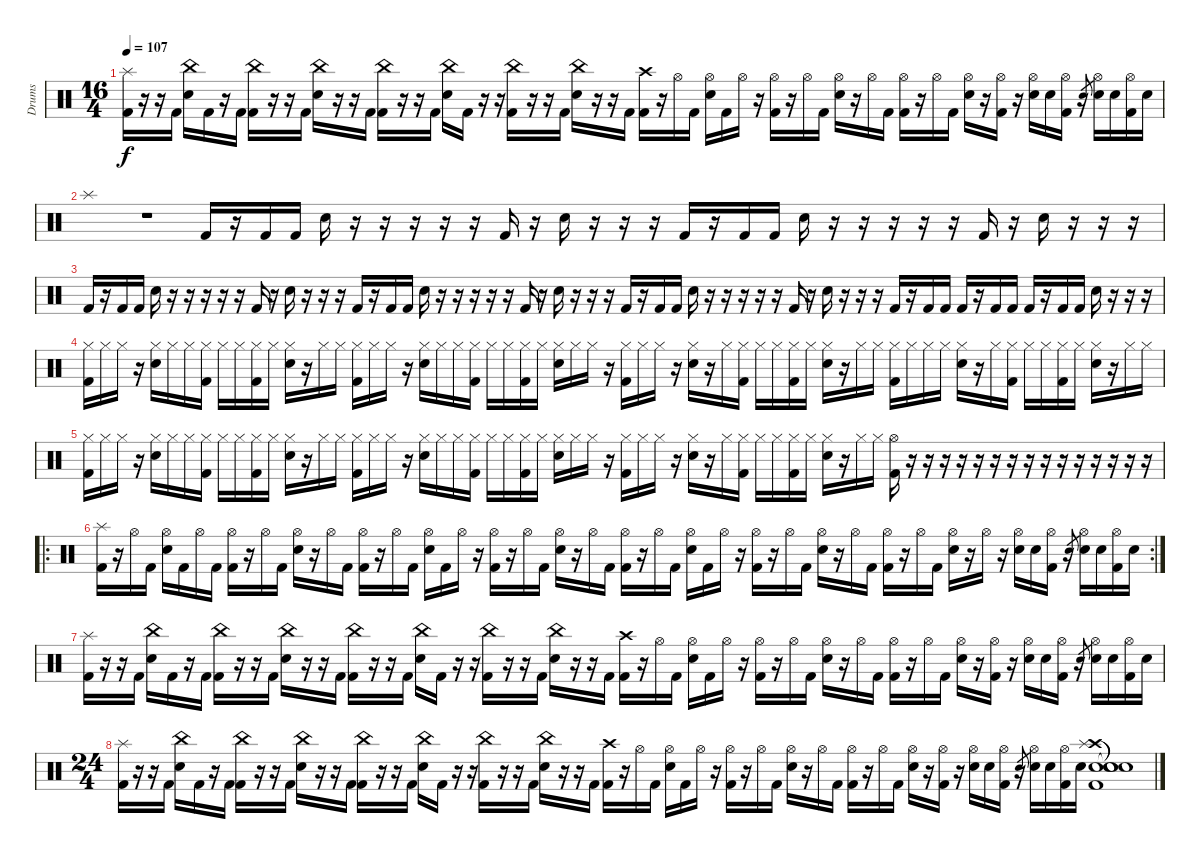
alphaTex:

\track ("Drums" "Drums") {instrument percussion}
\staff {score}
\articulation defaults
\ts (16 4)
\tempo 107
\clef neutral
\ks c
("Splash (hit)" "Kick (hit) 2").16{dy f} r.16 r.16 "Kick (hit) 2".16 ("China (hit)" "Electric Snare (hit)").16 "Kick (hit) 2".16 r.16 "Kick (hit) 2".16 ("China (hit)" "Kick (hit) 2").16 r.16 r.16 "Kick (hit) 2".16 ("China (hit)" "Electric Snare (hit)").16 r.16 r.16 "Kick (hit) 2".16 ("China (hit)" "Kick (hit) 2").16 r.16 r.16 "Kick (hit) 2".16 ("China (hit)" "Electric Snare (hit)").16 "Kick (hit) 2".16 r.16 r.16 ("China (hit)" "Kick (hit) 2").16 r.16 r.16 "Kick (hit) 2".16 ("China (hit)" "Electric Snare (hit)").16 r.16 r.16 "Kick (hit) 2".16 ("Crash high (hit)" "Kick (hit) 2").16 r.16 "Hi-Hat (open)".16 "Kick (hit) 2".16 ("Hi-Hat (open)" "Electric Snare (hit)").16 "Kick (hit) 2".16 "Hi-Hat (open)".16 r.16 ("Hi-Hat (open)" "Kick (hit) 2").16 r.16 "Hi-Hat (open)".16 "Kick (hit) 2".16 ("Hi-Hat (open)" "Electric Snare (hit)").16 r.16 "Hi-Hat (open)".16 "Kick (hit) 2".16 ("Hi-Hat (open)" "Kick (hit) 2").16 r.16 "Hi-Hat (open)".16 "Kick (hit) 2".16 ("Hi-Hat (open)" "Electric Snare (hit)").16 r.16 ("Hi-Hat (open)" "Kick (hit) 2").16 r.16 ("Hi-Hat (open)" "Electric Snare (hit)").16 "Electric Snare (hit)".16 ("Hi-Hat (open)" "Kick (hit) 2").16 r.16 "Electric Snare (hit)".8{gr} ("Hi-Hat (open)" "Electric Snare (hit)").16 "Electric Snare (hit)".16 ("Hi-Hat (open)" "Kick (hit) 2").16 "Electric Snare (hit)".16 |
"Splash (hit)".1 r.1 "Kick (hit) 2".16 r.16 "Kick (hit) 2".16 "Kick (hit) 2".16 "Hand Clap (hit)".16 r.16 r.16 r.16 r.16 r.16 "Kick (hit) 2".16 r.16 "Hand Clap (hit)".16 r.16 r.16 r.16 "Kick (hit) 2".16 r.16 "Kick (hit) 2".16 "Kick (hit) 2".16 "Hand Clap (hit)".16 r.16 r.16 r.16 r.16 r.16 "Kick (hit) 2".16 r.16 "Hand Clap (hit)".16 r.16 r.16 r.16 |
"Kick (hit) 2".16 r.16 "Kick (hit) 2".16 "Kick (hit) 2".16 "Hand Clap (hit)".16 r.16 r.16 r.16 r.16 r.16 "Kick (hit) 2".16 r.16 "Hand Clap (hit)".16 r.16 r.16 r.16 "Kick (hit) 2".16 r.16 "Kick (hit) 2".16 "Kick (hit) 2".16 "Hand Clap (hit)".16 r.16 r.16 r.16 r.16 r.16 "Kick (hit) 2".16 r.16 "Hand Clap (hit)".16 r.16 r.16 r.16 "Kick (hit) 2".16 r.16 "Kick (hit) 2".16 "Kick (hit) 2".16 "Hand Clap (hit)".16 r.16 r.16 r.16 r.16 r.16 "Kick (hit) 2".16 r.16 "Hand Clap (hit)".16 r.16 r.16 r.16 "Kick (hit) 2".16 r.16 "Kick (hit) 2".16 "Kick (hit) 2".16 "Kick (hit) 2".16 r.16 "Kick (hit) 2".16 "Kick (hit) 2".16 "Kick (hit) 2".16 r.16 "Kick (hit) 2".16 "Kick (hit) 2".16 "Hand Clap (hit)".16 r.16 r.16 r.16 |
("Hi-Hat (closed)" "Kick (hit) 2").16 "Hi-Hat (closed)".16 "Hi-Hat (closed)".16 r.16 ("Hi-Hat (closed)" "Electric Snare (hit)").16 "Hi-Hat (closed)".16 "Hi-Hat (closed)".16 ("Hi-Hat (closed)" "Kick (hit) 2").16 "Hi-Hat (closed)".16 "Hi-Hat (closed)".16 ("Hi-Hat (closed)" "Kick (hit) 2").16 "Hi-Hat (closed)".16 ("Hi-Hat (closed)" "Electric Snare (hit)").16 r.16 "Hi-Hat (closed)".16 "Hi-Hat (closed)".16 ("Hi-Hat (closed)" "Kick (hit) 2").16 "Hi-Hat (closed)".16 "Hi-Hat (closed)".16 r.16 ("Hi-Hat (closed)" "Electric Snare (hit)").16 "Hi-Hat (closed)".16 "Hi-Hat (closed)".16 ("Hi-Hat (closed)" "Kick (hit) 2").16 "Hi-Hat (closed)".16 "Hi-Hat (closed)".16 ("Hi-Hat (closed)" "Kick (hit) 2").16 "Hi-Hat (closed)".16 ("Hi-Hat (closed)" "Electric Snare (hit)").16 "Hi-Hat (closed)".16 "Hi-Hat (closed)".16 r.16 ("Hi-Hat (closed)" "Kick (hit) 2").16 "Hi-Hat (closed)".16 "Hi-Hat (closed)".16 r.16 ("Hi-Hat (closed)" "Electric Snare (hit)").16 r.16 "Hi-Hat (closed)".16 ("Hi-Hat (closed)" "Kick (hit) 2").16 "Hi-Hat (closed)".16 "Hi-Hat (closed)".16 ("Hi-Hat (closed)" "Kick (hit) 2").16 "Hi-Hat (closed)".16 ("Hi-Hat (closed)" "Electric Snare (hit)").16 r.16 "Hi-Hat (closed)".16 "Hi-Hat (closed)".16 ("Hi-Hat (closed)" "Kick (hit) 2").16 "Hi-Hat (closed)".16 "Hi-Hat (closed)".16 "Hi-Hat (closed)".16 ("Hi-Hat (closed)" "Electric Snare (hit)").16 r.16 "Hi-Hat (closed)".16 ("Hi-Hat (closed)" "Kick (hit) 2").16 "Hi-Hat (closed)".16 "Hi-Hat (closed)".16 ("Hi-Hat (closed)" "Kick (hit) 2").16 "Hi-Hat (closed)".16 ("Hi-Hat (closed)" "Electric Snare (hit)").16 r.16 "Hi-Hat (closed)".16 "Hi-Hat (closed)".16 |
("Hi-Hat (closed)" "Kick (hit) 2").16 "Hi-Hat (closed)".16 "Hi-Hat (closed)".16 r.16 ("Hi-Hat (closed)" "Electric Snare (hit)").16 "Hi-Hat (closed)".16 "Hi-Hat (closed)".16 ("Hi-Hat (closed)" "Kick (hit) 2").16 "Hi-Hat (closed)".16 "Hi-Hat (closed)".16 ("Hi-Hat (closed)" "Kick (hit) 2").16 "Hi-Hat (closed)".16 ("Hi-Hat (closed)" "Electric Snare (hit)").16 r.16 "Hi-Hat (closed)".16 "Hi-Hat (closed)".16 ("Hi-Hat (closed)" "Kick (hit) 2").16 "Hi-Hat (closed)".16 "Hi-Hat (closed)".16 r.16 ("Hi-Hat (closed)" "Electric Snare (hit)").16 "Hi-Hat (closed)".16 "Hi-Hat (closed)".16 ("Hi-Hat (closed)" "Kick (hit) 2").16 "Hi-Hat (closed)".16 "Hi-Hat (closed)".16 ("Hi-Hat (closed)" "Kick (hit) 2").16 "Hi-Hat (closed)".16 ("Hi-Hat (closed)" "Electric Snare (hit)").16 "Hi-Hat (closed)".16 "Hi-Hat (closed)".16 r.16 ("Hi-Hat (closed)" "Kick (hit) 2").16 "Hi-Hat (closed)".16 "Hi-Hat (closed)".16 r.16 ("Hi-Hat (closed)" "Electric Snare (hit)").16 r.16 "Hi-Hat (closed)".16 ("Hi-Hat (closed)" "Kick (hit) 2").16 "Hi-Hat (closed)".16 "Hi-Hat (closed)".16 ("Hi-Hat (closed)" "Kick (hit) 2").16 "Hi-Hat (closed)".16 ("Hi-Hat (closed)" "Electric Snare (hit)").16 r.16 "Hi-Hat (closed)".16 "Hi-Hat (closed)".16 ("Hi-Hat (open)" "Kick (hit) 2").16 r.16 r.16 r.16 r.16 r.16 r.16 r.16 r.16 r.16 r.16 r.16 r.16 r.16 r.16 r.16 |
\ro
\rc 2
("Splash (hit)" "Kick (hit) 2").16 r.16 "Hi-Hat (open)".16 "Kick (hit) 2".16 ("Hi-Hat (open)" "Electric Snare (hit)").16 "Kick (hit) 2".16 "Hi-Hat (open)".16 "Kick (hit) 2".16 ("Hi-Hat (open)" "Kick (hit) 2").16 r.16 "Hi-Hat (open)".16 "Kick (hit) 2".16 ("Hi-Hat (open)" "Electric Snare (hit)").16 r.16 "Hi-Hat (open)".16 "Kick (hit) 2".16 ("Hi-Hat (open)" "Kick (hit) 2").16 r.16 "Hi-Hat (open)".16 "Kick (hit) 2".16 ("Hi-Hat (open)" "Electric Snare (hit)").16 "Kick (hit) 2".16 "Hi-Hat (open)".16 r.16 ("Hi-Hat (open)" "Kick (hit) 2").16 r.16 "Hi-Hat (open)".16 "Kick (hit) 2".16 ("Hi-Hat (open)" "Electric Snare (hit)").16 r.16 "Hi-Hat (open)".16 "Kick (hit) 2".16 ("Hi-Hat (open)" "Kick (hit) 2").16 r.16 "Hi-Hat (open)".16 "Kick (hit) 2".16 ("Hi-Hat (open)" "Electric Snare (hit)").16 "Kick (hit) 2".16 "Hi-Hat (open)".16 r.16 ("Hi-Hat (open)" "Kick (hit) 2").16 r.16 "Hi-Hat (open)".16 "Kick (hit) 2".16 ("Hi-Hat (open)" "Electric Snare (hit)").16 r.16 "Hi-Hat (open)".16 "Kick (hit) 2".16 ("Hi-Hat (open)" "Kick (hit) 2").16 r.16 "Hi-Hat (open)".16 "Kick (hit) 2".16 ("Hi-Hat (open)" "Electric Snare (hit)").16 r.16 "Hi-Hat (open)".16 r.16 ("Hi-Hat (open)" "Electric Snare (hit)").16 "Electric Snare (hit)".16 ("Hi-Hat (open)" "Kick (hit) 2").16 r.16 "Electric Snare (hit)".8{gr} ("Hi-Hat (open)" "Electric Snare (hit)").16 "Electric Snare (hit)".16 ("Hi-Hat (open)" "Kick (hit) 2").16 "Electric Snare (hit)".16 |
("Splash (hit)" "Kick (hit) 2").16 r.16 r.16 "Kick (hit) 2".16 ("China (hit)" "Electric Snare (hit)").16 "Kick (hit) 2".16 r.16 "Kick (hit) 2".16 ("China (hit)" "Kick (hit) 2").16 r.16 r.16 "Kick (hit) 2".16 ("China (hit)" "Electric Snare (hit)").16 r.16 r.16 "Kick (hit) 2".16 ("China (hit)" "Kick (hit) 2").16 r.16 r.16 "Kick (hit) 2".16 ("China (hit)" "Electric Snare (hit)").16 "Kick (hit) 2".16 r.16 r.16 ("China (hit)" "Kick (hit) 2").16 r.16 r.16 "Kick (hit) 2".16 ("China (hit)" "Electric Snare (hit)").16 r.16 r.16 "Kick (hit) 2".16 ("Crash high (hit)" "Kick (hit) 2").16 r.16 "Hi-Hat (open)".16 "Kick (hit) 2".16 ("Hi-Hat (open)" "Electric Snare (hit)").16 "Kick (hit) 2".16 "Hi-Hat (open)".16 r.16 ("Hi-Hat (open)" "Kick (hit) 2").16 r.16 "Hi-Hat (open)".16 "Kick (hit) 2".16 ("Hi-Hat (open)" "Electric Snare (hit)").16 r.16 "Hi-Hat (open)".16 "Kick (hit) 2".16 ("Hi-Hat (open)" "Kick (hit) 2").16 r.16 "Hi-Hat (open)".16 "Kick (hit) 2".16 ("Hi-Hat (open)" "Electric Snare (hit)").16 r.16 ("Hi-Hat (open)" "Kick (hit) 2").16 r.16 ("Hi-Hat (open)" "Electric Snare (hit)").16 "Electric Snare (hit)".16 ("Hi-Hat (open)" "Kick (hit) 2").16 r.16 "Electric Snare (hit)".8{gr} ("Hi-Hat (open)" "Electric Snare (hit)").16 "Electric Snare (hit)".16 ("Hi-Hat (open)" "Kick (hit) 2").16 "Electric Snare (hit)".16 |
\ts (24 4)
("Splash (hit)" "Kick (hit) 2").16 r.16 r.16 "Kick (hit) 2".16 ("China (hit)" "Electric Snare (hit)").16 "Kick (hit) 2".16 r.16 "Kick (hit) 2".16 ("China (hit)" "Kick (hit) 2").16 r.16 r.16 "Kick (hit) 2".16 ("China (hit)" "Electric Snare (hit)").16 r.16 r.16 "Kick (hit) 2".16 ("China (hit)" "Kick (hit) 2").16 r.16 r.16 "Kick (hit) 2".16 ("China (hit)" "Electric Snare (hit)").16 "Kick (hit) 2".16 r.16 r.16 ("China (hit)" "Kick (hit) 2").16 r.16 r.16 "Kick (hit) 2".16 ("China (hit)" "Electric Snare (hit)").16 r.16 r.16 "Kick (hit) 2".16 ("Crash high (hit)" "Kick (hit) 2").16 r.16 "Hi-Hat (open)".16 "Kick (hit) 2".16 ("Hi-Hat (open)" "Electric Snare (hit)").16 "Kick (hit) 2".16 "Hi-Hat (open)".16 r.16 ("Hi-Hat (open)" "Kick (hit) 2").16 r.16 "Hi-Hat (open)".16 "Kick (hit) 2".16 ("Hi-Hat (open)" "Electric Snare (hit)").16 r.16 "Hi-Hat (open)".16 "Kick (hit) 2".16 ("Hi-Hat (open)" "Kick (hit) 2").16 r.16 "Hi-Hat (open)".16 "Kick (hit) 2".16 ("Hi-Hat (open)" "Electric Snare (hit)").16 r.16 ("Hi-Hat (open)" "Kick (hit) 2").16 r.16 ("Hi-Hat (open)" "Electric Snare (hit)").16 "Electric Snare (hit)".16 ("Hi-Hat (open)" "Kick (hit) 2").16 r.16 "Electric Snare (hit)".8{gr} ("Hi-Hat (open)" "Electric Snare (hit)").16 "Electric Snare (hit)".16 ("Hi-Hat (open)" "Kick (hit) 2").16 "Electric Snare (hit)".16 ("Crash high (hit)" "Splash (hit)" "Electric Snare (hit)" "Kick (hit) 2").1 ("Snare (hit)"{t} "Snare (hit)"{t} "Snare (hit)"{t}).1
